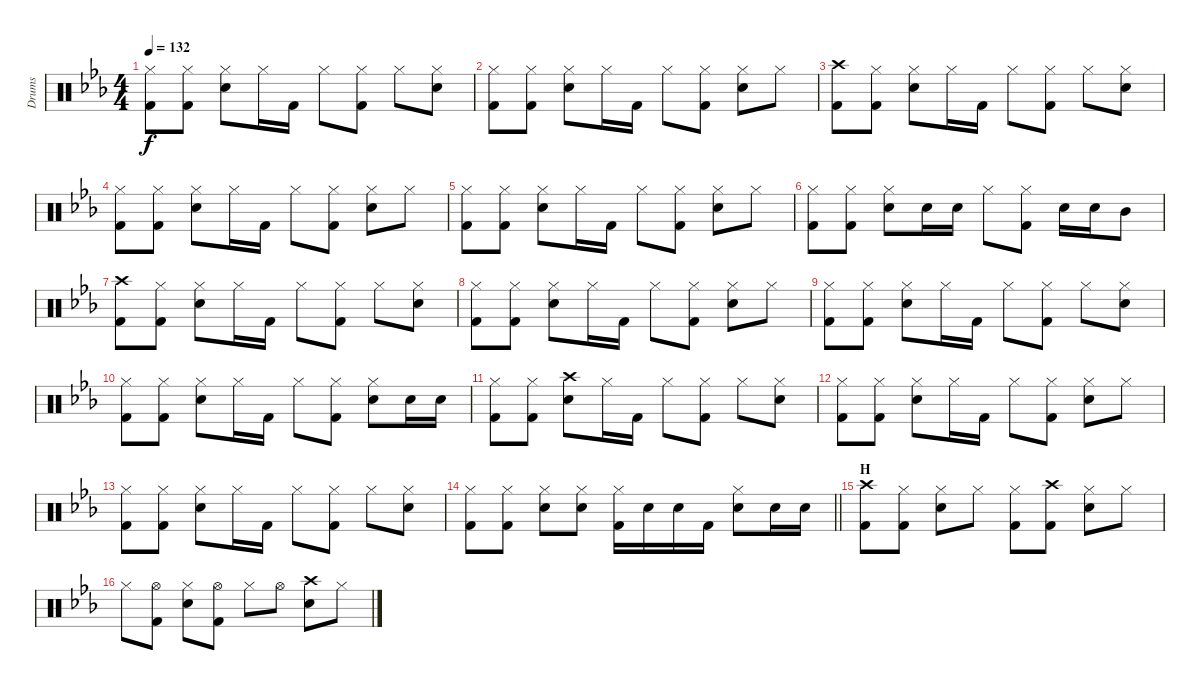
\track ("Drums" "Drums") {instrument percussion}
\staff {score}
\articulation defaults
\ts (4 4)
\tempo 132
\clef neutral
\ks eb
("Hi-Hat (closed)" "Kick (hit) 2").8{dy f} ("Hi-Hat (closed)" "Kick (hit) 2").8 ("Hi-Hat (closed)" "Snare (hit) 2").8 "Hi-Hat (closed)".16 "Kick (hit) 2".16 "Hi-Hat (closed)".8 ("Hi-Hat (closed)" "Kick (hit) 2").8 "Hi-Hat (closed)".8 ("Hi-Hat (closed)" "Snare (hit) 2").8 |
("Hi-Hat (closed)" "Kick (hit) 2").8 ("Hi-Hat (closed)" "Kick (hit) 2").8 ("Hi-Hat (closed)" "Snare (hit) 2").8 "Hi-Hat (closed)".16 "Kick (hit) 2".16 "Hi-Hat (closed)".8 ("Hi-Hat (closed)" "Kick (hit) 2").8 ("Hi-Hat (closed)" "Snare (hit) 2").8 "Hi-Hat (closed)".8 |
("Crash high (hit)" "Kick (hit) 2").8 ("Hi-Hat (closed)" "Kick (hit) 2").8 ("Hi-Hat (closed)" "Snare (hit) 2").8 "Hi-Hat (closed)".16 "Kick (hit) 2".16 "Hi-Hat (closed)".8 ("Hi-Hat (closed)" "Kick (hit) 2").8 "Hi-Hat (closed)".8 ("Hi-Hat (closed)" "Snare (hit) 2").8 |
("Hi-Hat (closed)" "Kick (hit) 2").8 ("Hi-Hat (closed)" "Kick (hit) 2").8 ("Hi-Hat (closed)" "Snare (hit) 2").8 "Hi-Hat (closed)".16 "Kick (hit) 2".16 "Hi-Hat (closed)".8 ("Hi-Hat (closed)" "Kick (hit) 2").8 ("Hi-Hat (closed)" "Snare (hit) 2").8 "Hi-Hat (closed)".8 |
("Hi-Hat (closed)" "Kick (hit) 2").8 ("Hi-Hat (closed)" "Kick (hit) 2").8 ("Hi-Hat (closed)" "Snare (hit) 2").8 "Hi-Hat (closed)".16 "Kick (hit) 2".16 "Hi-Hat (closed)".8 ("Hi-Hat (closed)" "Kick (hit) 2").8 ("Hi-Hat (closed)" "Snare (hit) 2").8 "Hi-Hat (closed)".8 |
("Hi-Hat (closed)" "Kick (hit) 2").8 ("Hi-Hat (closed)" "Kick (hit) 2").8 ("Hi-Hat (closed)" "Snare (hit) 2").8 "Snare (hit) 2".16 "Snare (hit) 2".16 "Hi-Hat (closed)".8 ("Hi-Hat (closed)" "Kick (hit) 2").8 "Snare (hit) 2".16 "Snare (hit) 2".16 "Mid Tom (hit)".8 |
("Crash high (hit)" "Kick (hit) 2").8 ("Hi-Hat (closed)" "Kick (hit) 2").8 ("Hi-Hat (closed)" "Snare (hit) 2").8 "Hi-Hat (closed)".16 "Kick (hit) 2".16 "Hi-Hat (closed)".8 ("Hi-Hat (closed)" "Kick (hit) 2").8 "Hi-Hat (closed)".8 ("Hi-Hat (closed)" "Snare (hit) 2").8 |
("Hi-Hat (closed)" "Kick (hit) 2").8 ("Hi-Hat (closed)" "Kick (hit) 2").8 ("Hi-Hat (closed)" "Snare (hit) 2").8 "Hi-Hat (closed)".16 "Kick (hit) 2".16 "Hi-Hat (closed)".8 ("Hi-Hat (closed)" "Kick (hit) 2").8 ("Hi-Hat (closed)" "Snare (hit) 2").8 "Hi-Hat (closed)".8 |
("Hi-Hat (closed)" "Kick (hit) 2").8 ("Hi-Hat (closed)" "Kick (hit) 2").8 ("Hi-Hat (closed)" "Snare (hit) 2").8 "Hi-Hat (closed)".16 "Kick (hit) 2".16 "Hi-Hat (closed)".8 ("Hi-Hat (closed)" "Kick (hit) 2").8 "Hi-Hat (closed)".8 ("Hi-Hat (closed)" "Snare (hit) 2").8 |
("Hi-Hat (closed)" "Kick (hit) 2").8 ("Hi-Hat (closed)" "Kick (hit) 2").8 ("Hi-Hat (closed)" "Snare (hit) 2").8 "Hi-Hat (closed)".16 "Kick (hit) 2".16 "Hi-Hat (closed)".8 ("Hi-Hat (closed)" "Kick (hit) 2").8 ("Hi-Hat (closed)" "Snare (hit) 2").8 "Snare (hit) 2".16 "Snare (hit) 2".16 |
("Hi-Hat (closed)" "Kick (hit) 2").8 ("Hi-Hat (closed)" "Kick (hit) 2").8 ("Crash high (hit)" "Snare (hit) 2").8 "Hi-Hat (closed)".16 "Kick (hit) 2".16 "Hi-Hat (closed)".8 ("Hi-Hat (closed)" "Kick (hit) 2").8 "Hi-Hat (closed)".8 ("Hi-Hat (closed)" "Snare (hit) 2").8 |
("Hi-Hat (closed)" "Kick (hit) 2").8 ("Hi-Hat (closed)" "Kick (hit) 2").8 ("Hi-Hat (closed)" "Snare (hit) 2").8 "Hi-Hat (closed)".16 "Kick (hit) 2".16 "Hi-Hat (closed)".8 ("Hi-Hat (closed)" "Kick (hit) 2").8 ("Hi-Hat (closed)" "Snare (hit) 2").8 "Hi-Hat (closed)".8 |
("Hi-Hat (closed)" "Kick (hit) 2").8 ("Hi-Hat (closed)" "Kick (hit) 2").8 ("Hi-Hat (closed)" "Snare (hit) 2").8 "Hi-Hat (closed)".16 "Kick (hit) 2".16 "Hi-Hat (closed)".8 ("Hi-Hat (closed)" "Kick (hit) 2").8 "Hi-Hat (closed)".8 ("Hi-Hat (closed)" "Snare (hit) 2").8 |
\barLineRight lightlight
("Hi-Hat (closed)" "Kick (hit) 2").8 ("Hi-Hat (closed)" "Kick (hit) 2").8 ("Hi-Hat (closed)" "Snare (hit) 2").8 ("Hi-Hat (closed)" "Snare (hit) 2").8 ("Hi-Hat (closed)" "Kick (hit) 2").16 "Snare (hit) 2".16 "Snare (hit) 2".16 "Kick (hit) 2".16 ("Hi-Hat (closed)" "Snare (hit) 2").8 "Snare (hit) 2".16 "Snare (hit) 2".16 |
\section ("" "H")
("Crash high (hit)" "Kick (hit) 2").8 ("Hi-Hat (closed)" "Kick (hit) 2").8 ("Hi-Hat (closed)" "Snare (hit) 2").8 "Hi-Hat (closed)".8 ("Hi-Hat (closed)" "Kick (hit) 2").8 ("Crash high (hit)" "Kick (hit) 2").8 ("Hi-Hat (closed)" "Snare (hit) 2").8 "Hi-Hat (closed)".8 |
"Hi-Hat (closed)".8 ("Hi-Hat (open)" "Kick (hit) 2").8 ("Hi-Hat (closed)" "Snare (hit) 2").8 ("Hi-Hat (open)" "Kick (hit) 2").8 "Hi-Hat (closed)".8 "Hi-Hat (open)".8 ("Crash high (hit)" "Snare (hit) 2").8 "Hi-Hat (closed)".8
